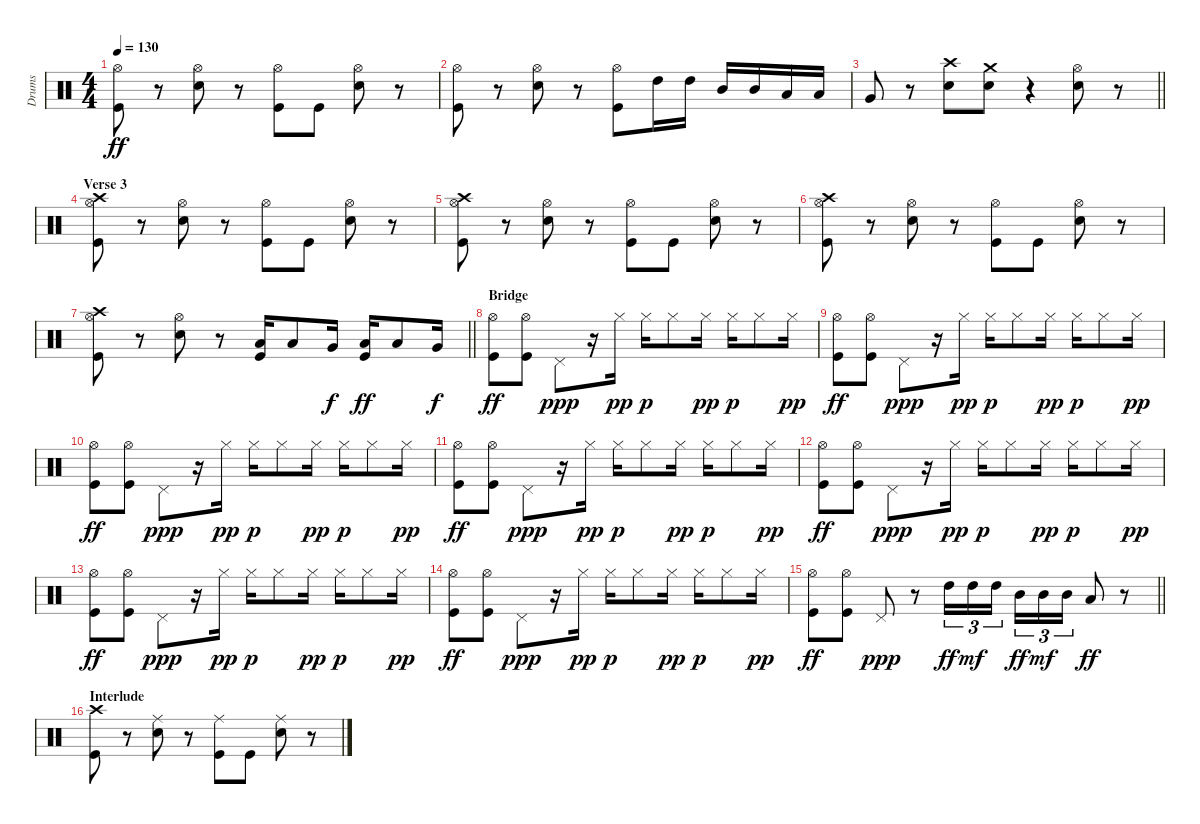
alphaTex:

\track ("Drums" "Drums") {instrument percussion}
\staff {score}
\articulation defaults
\ts (4 4)
\tempo 130
\clef neutral
\ks c
("Hi-Hat (open)" "Kick (hit)").8{dy ff} r.8 ("Hi-Hat (open)" "Electric Snare (hit)").8 r.8 ("Hi-Hat (open)" "Kick (hit)").8 "Kick (hit)".8 ("Hi-Hat (open)" "Electric Snare (hit)").8 r.8 |
("Hi-Hat (open)" "Kick (hit)").8 r.8 ("Hi-Hat (open)" "Electric Snare (hit)").8 r.8 ("Hi-Hat (open)" "Kick (hit)").8 "High Tom (hit)".16 "High Tom (hit)".16 "Mid Tom (hit)".16 "Mid Tom (hit)".16 "Low Tom (hit)".16 "Low Tom (hit)".16 |
\barLineRight lightlight "Very Low Tom (hit)".8
r.8 ("Crash high (hit)" "Electric Snare (hit)").8 ("Crash medium (hit)" "Electric Snare (hit)").8 r.4 ("Hi-Hat (open)" "Electric Snare (hit)").8 r.8 |
\section ("" "Verse 3")
("Crash high (hit)" "Hi-Hat (open)" "Kick (hit)").8 r.8 ("Hi-Hat (open)" "Electric Snare (hit)").8 r.8 ("Hi-Hat (open)" "Kick (hit)").8 "Kick (hit)".8 ("Hi-Hat (open)" "Electric Snare (hit)").8 r.8 |
("Crash high (hit)" "Hi-Hat (open)" "Kick (hit)").8 r.8 ("Hi-Hat (open)" "Electric Snare (hit)").8 r.8 ("Hi-Hat (open)" "Kick (hit)").8 "Kick (hit)".8 ("Hi-Hat (open)" "Electric Snare (hit)").8 r.8 |
("Crash high (hit)" "Hi-Hat (open)" "Kick (hit)").8 r.8 ("Hi-Hat (open)" "Electric Snare (hit)").8 r.8 ("Hi-Hat (open)" "Kick (hit)").8 "Kick (hit)".8 ("Hi-Hat (open)" "Electric Snare (hit)").8 r.8 |
\barLineRight lightlight
("Crash high (hit)" "Hi-Hat (open)" "Kick (hit)").8 r.8 ("Hi-Hat (open)" "Electric Snare (hit)").8 r.8 ("Low Tom (hit)" "Kick (hit)").16 "Low Tom (hit)".8 "Very Low Tom (hit)".16{dy f} ("Low Tom (hit)" "Kick (hit)").16{dy ff} "Low Tom (hit)".8 "Very Low Tom (hit)".16{dy f} |
\section ("" "Bridge")
("Hi-Hat (open)" "Kick (hit)").8{dy ff} ("Hi-Hat (open)" "Kick (hit)").8 "Pedal Hi-Hat (hit)".8{dy ppp} r.16 "Hi-Hat (closed)".16{dy pp} "Hi-Hat (closed)".16{dy p} "Hi-Hat (closed)".8 "Hi-Hat (closed)".16{dy pp} "Hi-Hat (closed)".16{dy p} "Hi-Hat (closed)".8 "Hi-Hat (closed)".16{dy pp} |
("Hi-Hat (open)" "Kick (hit)").8{dy ff} ("Hi-Hat (open)" "Kick (hit)").8 "Pedal Hi-Hat (hit)".8{dy ppp} r.16 "Hi-Hat (closed)".16{dy pp} "Hi-Hat (closed)".16{dy p} "Hi-Hat (closed)".8 "Hi-Hat (closed)".16{dy pp} "Hi-Hat (closed)".16{dy p} "Hi-Hat (closed)".8 "Hi-Hat (closed)".16{dy pp} |
("Hi-Hat (open)" "Kick (hit)").8{dy ff} ("Hi-Hat (open)" "Kick (hit)").8 "Pedal Hi-Hat (hit)".8{dy ppp} r.16 "Hi-Hat (closed)".16{dy pp} "Hi-Hat (closed)".16{dy p} "Hi-Hat (closed)".8 "Hi-Hat (closed)".16{dy pp} "Hi-Hat (closed)".16{dy p} "Hi-Hat (closed)".8 "Hi-Hat (closed)".16{dy pp} |
("Hi-Hat (open)" "Kick (hit)").8{dy ff} ("Hi-Hat (open)" "Kick (hit)").8 "Pedal Hi-Hat (hit)".8{dy ppp} r.16 "Hi-Hat (closed)".16{dy pp} "Hi-Hat (closed)".16{dy p} "Hi-Hat (closed)".8 "Hi-Hat (closed)".16{dy pp} "Hi-Hat (closed)".16{dy p} "Hi-Hat (closed)".8 "Hi-Hat (closed)".16{dy pp} |
("Hi-Hat (open)" "Kick (hit)").8{dy ff} ("Hi-Hat (open)" "Kick (hit)").8 "Pedal Hi-Hat (hit)".8{dy ppp} r.16 "Hi-Hat (closed)".16{dy pp} "Hi-Hat (closed)".16{dy p} "Hi-Hat (closed)".8 "Hi-Hat (closed)".16{dy pp} "Hi-Hat (closed)".16{dy p} "Hi-Hat (closed)".8 "Hi-Hat (closed)".16{dy pp} |
("Hi-Hat (open)" "Kick (hit)").8{dy ff} ("Hi-Hat (open)" "Kick (hit)").8 "Pedal Hi-Hat (hit)".8{dy ppp} r.16 "Hi-Hat (closed)".16{dy pp} "Hi-Hat (closed)".16{dy p} "Hi-Hat (closed)".8 "Hi-Hat (closed)".16{dy pp} "Hi-Hat (closed)".16{dy p} "Hi-Hat (closed)".8 "Hi-Hat (closed)".16{dy pp} |
("Hi-Hat (open)" "Kick (hit)").8{dy ff} ("Hi-Hat (open)" "Kick (hit)").8 "Pedal Hi-Hat (hit)".8{dy ppp} r.16 "Hi-Hat (closed)".16{dy pp} "Hi-Hat (closed)".16{dy p} "Hi-Hat (closed)".8 "Hi-Hat (closed)".16{dy pp} "Hi-Hat (closed)".16{dy p} "Hi-Hat (closed)".8 "Hi-Hat (closed)".16{dy pp} |
\barLineRight lightlight
("Hi-Hat (open)" "Kick (hit)").8{dy ff} ("Hi-Hat (open)" "Kick (hit)").8 "Pedal Hi-Hat (hit)".8{dy ppp} r.8 "High Tom (hit)".16{tu (3 2) dy ff} "High Tom (hit)".16{tu (3 2) dy mf} "High Tom (hit)".16{tu (3 2) beam splitsecondary} "Mid Tom (hit)".16{tu (3 2) dy ff} "Mid Tom (hit)".16{tu (3 2) dy mf} "Mid Tom (hit)".16{tu (3 2)} "Low Tom (hit)".8{dy ff} r.8 |
\section ("" "Interlude")
("Crash high (hit)" "Kick (hit)").8 r.8 ("Ride (middle)" "Electric Snare (hit)").8 r.8 ("Ride (middle)" "Kick (hit)").8 "Kick (hit)".8 ("Ride (middle)" "Electric Snare (hit)").8 r.8
